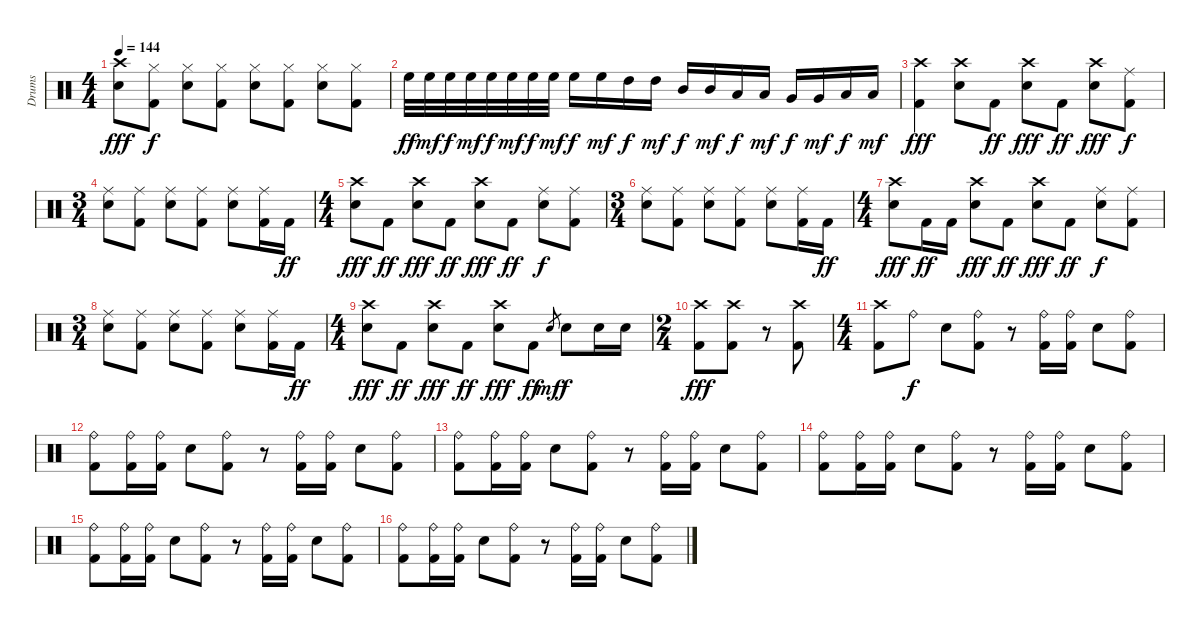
\track ("Drums" "Drums") {instrument percussion}
\staff {score}
\articulation defaults
\ts (4 4)
\tempo 144
\clef neutral
\ks c
("Crash high (hit)" "Snare (hit) 2").8{dy fff} ("Hi-Hat (closed)" "Kick (hit) 2").8{dy f} ("Hi-Hat (closed)" "Snare (hit) 2").8 ("Hi-Hat (closed)" "Kick (hit) 2").8 ("Hi-Hat (closed)" "Snare (hit) 2").8 ("Hi-Hat (closed)" "Kick (hit) 2").8 ("Hi-Hat (closed)" "Snare (hit) 2").8 ("Hi-Hat (closed)" "Kick (hit) 2").8 |
"High Floor Tom (hit)".32{dy ff} "High Floor Tom (hit)".32{dy mf} "High Floor Tom (hit)".32{dy f} "High Floor Tom (hit)".32{dy mf} "High Floor Tom (hit)".32{dy f} "High Floor Tom (hit)".32{dy mf} "High Floor Tom (hit)".32{dy f} "High Floor Tom (hit)".32{dy mf} "High Floor Tom (hit)".16{dy f} "High Floor Tom (hit)".16{dy mf} "High Tom (hit)".16{dy f} "High Tom (hit)".16{dy mf} "Mid Tom (hit)".16{dy f} "Mid Tom (hit)".16{dy mf} "Low Tom (hit)".16{dy f} "Low Tom (hit)".16{dy mf} "Very Low Tom (hit)".16{dy f} "Very Low Tom (hit)".16{dy mf} "Low Floor Tom (hit)".16{dy f} "Low Floor Tom (hit)".16{dy mf} |
("Crash high (hit)" "Kick (hit) 2").4{dy fff} ("Crash high (hit)" "Snare (hit) 2").8 "Kick (hit) 2".8{dy ff} ("Crash high (hit)" "Snare (hit) 2").8{dy fff} "Kick (hit) 2".8{dy ff} ("Crash high (hit)" "Snare (hit) 2").8{dy fff} ("Ride (middle)" "Kick (hit) 2").8{dy f} |
\ts (3 4)
("Ride (middle)" "Snare (hit) 2").8 ("Ride (middle)" "Kick (hit) 2").8 ("Ride (middle)" "Snare (hit) 2").8 ("Ride (middle)" "Kick (hit) 2").8 ("Ride (middle)" "Snare (hit) 2").8 ("Ride (middle)" "Kick (hit) 2").16 "Kick (hit) 2".16{dy ff} |
\ts (4 4)
("Crash high (hit)" "Snare (hit) 2").8{dy fff} "Kick (hit) 2".8{dy ff} ("Crash high (hit)" "Snare (hit) 2").8{dy fff} "Kick (hit) 2".8{dy ff} ("Crash high (hit)" "Snare (hit) 2").8{dy fff} "Kick (hit) 2".8{dy ff} ("Ride (middle)" "Snare (hit) 2").8{dy f} ("Ride (middle)" "Kick (hit) 2").8 |
\ts (3 4)
("Ride (middle)" "Snare (hit) 2").8 ("Ride (middle)" "Kick (hit) 2").8 ("Ride (middle)" "Snare (hit) 2").8 ("Ride (middle)" "Kick (hit) 2").8 ("Ride (middle)" "Snare (hit) 2").8 ("Ride (middle)" "Kick (hit) 2").16 "Kick (hit) 2".16{dy ff} |
\ts (4 4)
("Crash high (hit)" "Snare (hit) 2").8{dy fff} "Kick (hit) 2".16{dy ff} "Kick (hit) 2".16 ("Crash high (hit)" "Snare (hit) 2").8{dy fff} "Kick (hit) 2".8{dy ff} ("Crash high (hit)" "Snare (hit) 2").8{dy fff} "Kick (hit) 2".8{dy ff} ("Ride (middle)" "Snare (hit) 2").8{dy f} ("Ride (middle)" "Kick (hit) 2").8 |
\ts (3 4)
("Ride (middle)" "Snare (hit) 2").8 ("Ride (middle)" "Kick (hit) 2").8 ("Ride (middle)" "Snare (hit) 2").8 ("Ride (middle)" "Kick (hit) 2").8 ("Ride (middle)" "Snare (hit) 2").8 ("Ride (middle)" "Kick (hit) 2").16 "Kick (hit) 2".16{dy ff} |
\ts (4 4)
("Crash high (hit)" "Snare (hit) 2").8{dy fff} "Kick (hit) 2".8{dy ff} ("Crash high (hit)" "Snare (hit) 2").8{dy fff} "Kick (hit) 2".8{dy ff} ("Crash high (hit)" "Snare (hit) 2").8{dy fff} "Kick (hit) 2".8{dy ff} "Snare (hit)".8{gr dy mf} "Snare (hit) 2".8{dy f} "Snare (hit) 2".16 "Snare (hit) 2".16 |
\ts (2 4)
("Crash high (hit)" "Kick (hit) 2").8{dy fff} ("Crash high (hit)" "Kick (hit) 2").8 r.8 ("Crash high (hit)" "Kick (hit) 2").8 |
\ts (4 4)
("Crash high (hit)" "Kick (hit) 2").8 "Ride (bell)".8{dy f} "Snare (hit) 2".8 ("Ride (bell)" "Kick (hit) 2").8 r.8 ("Ride (bell)" "Kick (hit) 2").16 ("Ride (bell)" "Kick (hit) 2").16 "Snare (hit) 2".8 ("Ride (bell)" "Kick (hit) 2").8 |
("Ride (bell)" "Kick (hit) 2").8 ("Ride (bell)" "Kick (hit) 2").16 ("Ride (bell)" "Kick (hit) 2").16 "Snare (hit) 2".8 ("Ride (bell)" "Kick (hit) 2").8 r.8 ("Ride (bell)" "Kick (hit) 2").16 ("Ride (bell)" "Kick (hit) 2").16 "Snare (hit) 2".8 ("Ride (bell)" "Kick (hit) 2").8 |
("Ride (bell)" "Kick (hit) 2").8 ("Ride (bell)" "Kick (hit) 2").16 ("Ride (bell)" "Kick (hit) 2").16 "Snare (hit) 2".8 ("Ride (bell)" "Kick (hit) 2").8 r.8 ("Ride (bell)" "Kick (hit) 2").16 ("Ride (bell)" "Kick (hit) 2").16 "Snare (hit) 2".8 ("Ride (bell)" "Kick (hit) 2").8 |
("Ride (bell)" "Kick (hit) 2").8 ("Ride (bell)" "Kick (hit) 2").16 ("Ride (bell)" "Kick (hit) 2").16 "Snare (hit) 2".8 ("Ride (bell)" "Kick (hit) 2").8 r.8 ("Ride (bell)" "Kick (hit) 2").16 ("Ride (bell)" "Kick (hit) 2").16 "Snare (hit) 2".8 ("Ride (bell)" "Kick (hit) 2").8 |
("Ride (bell)" "Kick (hit) 2").8 ("Ride (bell)" "Kick (hit) 2").16 ("Ride (bell)" "Kick (hit) 2").16 "Snare (hit) 2".8 ("Ride (bell)" "Kick (hit) 2").8 r.8 ("Ride (bell)" "Kick (hit) 2").16 ("Ride (bell)" "Kick (hit) 2").16 "Snare (hit) 2".8 ("Ride (bell)" "Kick (hit) 2").8 |
("Ride (bell)" "Kick (hit) 2").8 ("Ride (bell)" "Kick (hit) 2").16 ("Ride (bell)" "Kick (hit) 2").16 "Snare (hit) 2".8 ("Ride (bell)" "Kick (hit) 2").8 r.8 ("Ride (bell)" "Kick (hit) 2").16 ("Ride (bell)" "Kick (hit) 2").16 "Snare (hit) 2".8 ("Ride (bell)" "Kick (hit) 2").8
